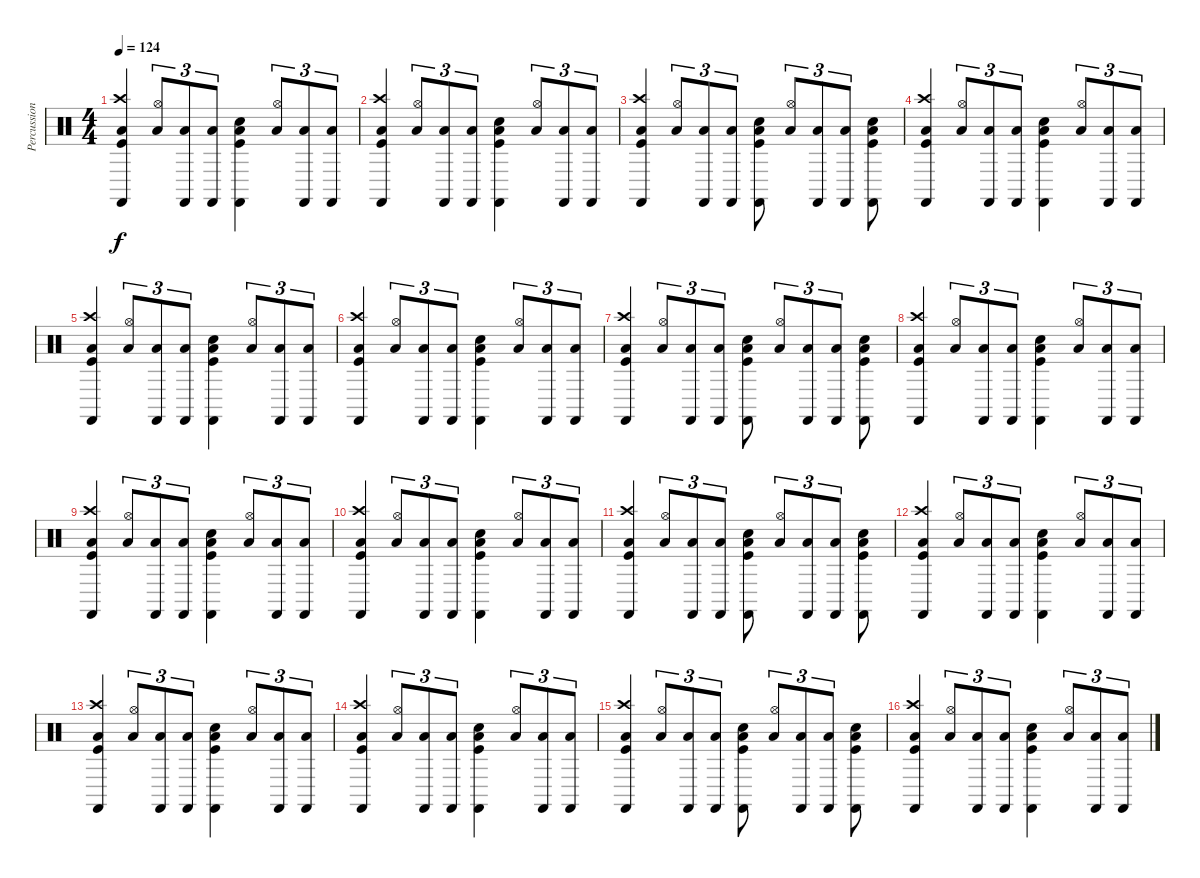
\track ("Percussion" "Percussion") {instrument percussion}
\staff {score}
\articulation defaults
\ts (4 4)
\tempo 124
\clef neutral
\ks c
("Low Floor Tom (hit)" "Kick (hit)" "Crash high (hit)" "Castanets (hit)").4{dy f} ("Low Floor Tom (hit)" "Hi-Hat (open)").8{tu (3 2)} ("Low Floor Tom (hit)" "Castanets (hit)").8{tu (3 2)} ("Low Floor Tom (hit)" "Castanets (hit)").8{tu (3 2)} ("Low Floor Tom (hit)" "Electric Snare (hit)" "Kick (hit)" "Castanets (hit)").4 ("Low Floor Tom (hit)" "Hi-Hat (open)").8{tu (3 2)} ("Low Floor Tom (hit)" "Castanets (hit)").8{tu (3 2)} ("Low Floor Tom (hit)" "Castanets (hit)").8{tu (3 2)} |
("Low Floor Tom (hit)" "Kick (hit)" "Crash high (hit)" "Castanets (hit)").4 ("Low Floor Tom (hit)" "Hi-Hat (open)").8{tu (3 2)} ("Low Floor Tom (hit)" "Castanets (hit)").8{tu (3 2)} ("Low Floor Tom (hit)" "Castanets (hit)").8{tu (3 2)} ("Low Floor Tom (hit)" "Electric Snare (hit)" "Kick (hit)" "Castanets (hit)").4 ("Low Floor Tom (hit)" "Hi-Hat (open)").8{tu (3 2)} ("Low Floor Tom (hit)" "Castanets (hit)").8{tu (3 2)} ("Low Floor Tom (hit)" "Castanets (hit)").8{tu (3 2)} |
("Low Floor Tom (hit)" "Kick (hit)" "Crash high (hit)" "Castanets (hit)").4 ("Low Floor Tom (hit)" "Hi-Hat (open)").8{tu (3 2)} ("Low Floor Tom (hit)" "Castanets (hit)").8{tu (3 2)} ("Low Floor Tom (hit)" "Castanets (hit)").8{tu (3 2)} ("Low Floor Tom (hit)" "Electric Snare (hit)" "Kick (hit)" "Castanets (hit)").8 ("Low Floor Tom (hit)" "Hi-Hat (open)").8{tu (3 2)} ("Low Floor Tom (hit)" "Castanets (hit)").8{tu (3 2)} ("Low Floor Tom (hit)" "Castanets (hit)").8{tu (3 2)} ("Low Floor Tom (hit)" "Electric Snare (hit)" "Kick (hit)" "Castanets (hit)").8 |
("Low Floor Tom (hit)" "Kick (hit)" "Crash high (hit)" "Castanets (hit)").4 ("Low Floor Tom (hit)" "Hi-Hat (open)").8{tu (3 2)} ("Low Floor Tom (hit)" "Castanets (hit)").8{tu (3 2)} ("Low Floor Tom (hit)" "Castanets (hit)").8{tu (3 2)} ("Low Floor Tom (hit)" "Electric Snare (hit)" "Kick (hit)" "Castanets (hit)").4 ("Low Floor Tom (hit)" "Hi-Hat (open)").8{tu (3 2)} ("Low Floor Tom (hit)" "Castanets (hit)").8{tu (3 2)} ("Low Floor Tom (hit)" "Castanets (hit)").8{tu (3 2)} |
("Low Floor Tom (hit)" "Kick (hit)" "Crash high (hit)" "Castanets (hit)").4 ("Low Floor Tom (hit)" "Hi-Hat (open)").8{tu (3 2)} ("Low Floor Tom (hit)" "Castanets (hit)").8{tu (3 2)} ("Low Floor Tom (hit)" "Castanets (hit)").8{tu (3 2)} ("Low Floor Tom (hit)" "Electric Snare (hit)" "Kick (hit)" "Castanets (hit)").4 ("Low Floor Tom (hit)" "Hi-Hat (open)").8{tu (3 2)} ("Low Floor Tom (hit)" "Castanets (hit)").8{tu (3 2)} ("Low Floor Tom (hit)" "Castanets (hit)").8{tu (3 2)} |
("Low Floor Tom (hit)" "Kick (hit)" "Crash high (hit)" "Castanets (hit)").4 ("Low Floor Tom (hit)" "Hi-Hat (open)").8{tu (3 2)} ("Low Floor Tom (hit)" "Castanets (hit)").8{tu (3 2)} ("Low Floor Tom (hit)" "Castanets (hit)").8{tu (3 2)} ("Low Floor Tom (hit)" "Electric Snare (hit)" "Kick (hit)" "Castanets (hit)").4 ("Low Floor Tom (hit)" "Hi-Hat (open)").8{tu (3 2)} ("Low Floor Tom (hit)" "Castanets (hit)").8{tu (3 2)} ("Low Floor Tom (hit)" "Castanets (hit)").8{tu (3 2)} |
("Low Floor Tom (hit)" "Kick (hit)" "Crash high (hit)" "Castanets (hit)").4 ("Low Floor Tom (hit)" "Hi-Hat (open)").8{tu (3 2)} ("Low Floor Tom (hit)" "Castanets (hit)").8{tu (3 2)} ("Low Floor Tom (hit)" "Castanets (hit)").8{tu (3 2)} ("Low Floor Tom (hit)" "Electric Snare (hit)" "Kick (hit)" "Castanets (hit)").8 ("Low Floor Tom (hit)" "Hi-Hat (open)").8{tu (3 2)} ("Low Floor Tom (hit)" "Castanets (hit)").8{tu (3 2)} ("Low Floor Tom (hit)" "Castanets (hit)").8{tu (3 2)} ("Low Floor Tom (hit)" "Electric Snare (hit)" "Kick (hit)" "Castanets (hit)").8 |
("Low Floor Tom (hit)" "Kick (hit)" "Crash high (hit)" "Castanets (hit)").4 ("Low Floor Tom (hit)" "Hi-Hat (open)").8{tu (3 2)} ("Low Floor Tom (hit)" "Castanets (hit)").8{tu (3 2)} ("Low Floor Tom (hit)" "Castanets (hit)").8{tu (3 2)} ("Low Floor Tom (hit)" "Electric Snare (hit)" "Kick (hit)" "Castanets (hit)").4 ("Low Floor Tom (hit)" "Hi-Hat (open)").8{tu (3 2)} ("Low Floor Tom (hit)" "Castanets (hit)").8{tu (3 2)} ("Low Floor Tom (hit)" "Castanets (hit)").8{tu (3 2)} |
("Low Floor Tom (hit)" "Kick (hit)" "Crash high (hit)" "Castanets (hit)").4 ("Low Floor Tom (hit)" "Hi-Hat (open)").8{tu (3 2)} ("Low Floor Tom (hit)" "Castanets (hit)").8{tu (3 2)} ("Low Floor Tom (hit)" "Castanets (hit)").8{tu (3 2)} ("Low Floor Tom (hit)" "Electric Snare (hit)" "Kick (hit)" "Castanets (hit)").4 ("Low Floor Tom (hit)" "Hi-Hat (open)").8{tu (3 2)} ("Low Floor Tom (hit)" "Castanets (hit)").8{tu (3 2)} ("Low Floor Tom (hit)" "Castanets (hit)").8{tu (3 2)} |
("Low Floor Tom (hit)" "Kick (hit)" "Crash high (hit)" "Castanets (hit)").4 ("Low Floor Tom (hit)" "Hi-Hat (open)").8{tu (3 2)} ("Low Floor Tom (hit)" "Castanets (hit)").8{tu (3 2)} ("Low Floor Tom (hit)" "Castanets (hit)").8{tu (3 2)} ("Low Floor Tom (hit)" "Electric Snare (hit)" "Kick (hit)" "Castanets (hit)").4 ("Low Floor Tom (hit)" "Hi-Hat (open)").8{tu (3 2)} ("Low Floor Tom (hit)" "Castanets (hit)").8{tu (3 2)} ("Low Floor Tom (hit)" "Castanets (hit)").8{tu (3 2)} |
("Low Floor Tom (hit)" "Kick (hit)" "Crash high (hit)" "Castanets (hit)").4 ("Low Floor Tom (hit)" "Hi-Hat (open)").8{tu (3 2)} ("Low Floor Tom (hit)" "Castanets (hit)").8{tu (3 2)} ("Low Floor Tom (hit)" "Castanets (hit)").8{tu (3 2)} ("Low Floor Tom (hit)" "Electric Snare (hit)" "Kick (hit)" "Castanets (hit)").8 ("Low Floor Tom (hit)" "Hi-Hat (open)").8{tu (3 2)} ("Low Floor Tom (hit)" "Castanets (hit)").8{tu (3 2)} ("Low Floor Tom (hit)" "Castanets (hit)").8{tu (3 2)} ("Low Floor Tom (hit)" "Electric Snare (hit)" "Kick (hit)" "Castanets (hit)").8 |
("Low Floor Tom (hit)" "Kick (hit)" "Crash high (hit)" "Castanets (hit)").4 ("Low Floor Tom (hit)" "Hi-Hat (open)").8{tu (3 2)} ("Low Floor Tom (hit)" "Castanets (hit)").8{tu (3 2)} ("Low Floor Tom (hit)" "Castanets (hit)").8{tu (3 2)} ("Low Floor Tom (hit)" "Electric Snare (hit)" "Kick (hit)" "Castanets (hit)").4 ("Low Floor Tom (hit)" "Hi-Hat (open)").8{tu (3 2)} ("Low Floor Tom (hit)" "Castanets (hit)").8{tu (3 2)} ("Low Floor Tom (hit)" "Castanets (hit)").8{tu (3 2)} |
("Low Floor Tom (hit)" "Kick (hit)" "Crash high (hit)" "Castanets (hit)").4 ("Low Floor Tom (hit)" "Hi-Hat (open)").8{tu (3 2)} ("Low Floor Tom (hit)" "Castanets (hit)").8{tu (3 2)} ("Low Floor Tom (hit)" "Castanets (hit)").8{tu (3 2)} ("Low Floor Tom (hit)" "Electric Snare (hit)" "Kick (hit)" "Castanets (hit)").4 ("Low Floor Tom (hit)" "Hi-Hat (open)").8{tu (3 2)} ("Low Floor Tom (hit)" "Castanets (hit)").8{tu (3 2)} ("Low Floor Tom (hit)" "Castanets (hit)").8{tu (3 2)} |
("Low Floor Tom (hit)" "Kick (hit)" "Crash high (hit)" "Castanets (hit)").4 ("Low Floor Tom (hit)" "Hi-Hat (open)").8{tu (3 2)} ("Low Floor Tom (hit)" "Castanets (hit)").8{tu (3 2)} ("Low Floor Tom (hit)" "Castanets (hit)").8{tu (3 2)} ("Low Floor Tom (hit)" "Electric Snare (hit)" "Kick (hit)" "Castanets (hit)").4 ("Low Floor Tom (hit)" "Hi-Hat (open)").8{tu (3 2)} ("Low Floor Tom (hit)" "Castanets (hit)").8{tu (3 2)} ("Low Floor Tom (hit)" "Castanets (hit)").8{tu (3 2)} |
("Low Floor Tom (hit)" "Kick (hit)" "Crash high (hit)" "Castanets (hit)").4 ("Low Floor Tom (hit)" "Hi-Hat (open)").8{tu (3 2)} ("Low Floor Tom (hit)" "Castanets (hit)").8{tu (3 2)} ("Low Floor Tom (hit)" "Castanets (hit)").8{tu (3 2)} ("Low Floor Tom (hit)" "Electric Snare (hit)" "Kick (hit)" "Castanets (hit)").8 ("Low Floor Tom (hit)" "Hi-Hat (open)").8{tu (3 2)} ("Low Floor Tom (hit)" "Castanets (hit)").8{tu (3 2)} ("Low Floor Tom (hit)" "Castanets (hit)").8{tu (3 2)} ("Low Floor Tom (hit)" "Electric Snare (hit)" "Kick (hit)" "Castanets (hit)").8 |
("Low Floor Tom (hit)" "Kick (hit)" "Crash high (hit)" "Castanets (hit)").4{volume 0} ("Low Floor Tom (hit)" "Hi-Hat (open)").8{tu (3 2)} ("Low Floor Tom (hit)" "Castanets (hit)").8{tu (3 2)} ("Low Floor Tom (hit)" "Castanets (hit)").8{tu (3 2)} ("Low Floor Tom (hit)" "Electric Snare (hit)" "Kick (hit)" "Castanets (hit)").4 ("Low Floor Tom (hit)" "Hi-Hat (open)").8{tu (3 2)} ("Low Floor Tom (hit)" "Castanets (hit)").8{tu (3 2)} ("Low Floor Tom (hit)" "Castanets (hit)").8{tu (3 2)}
